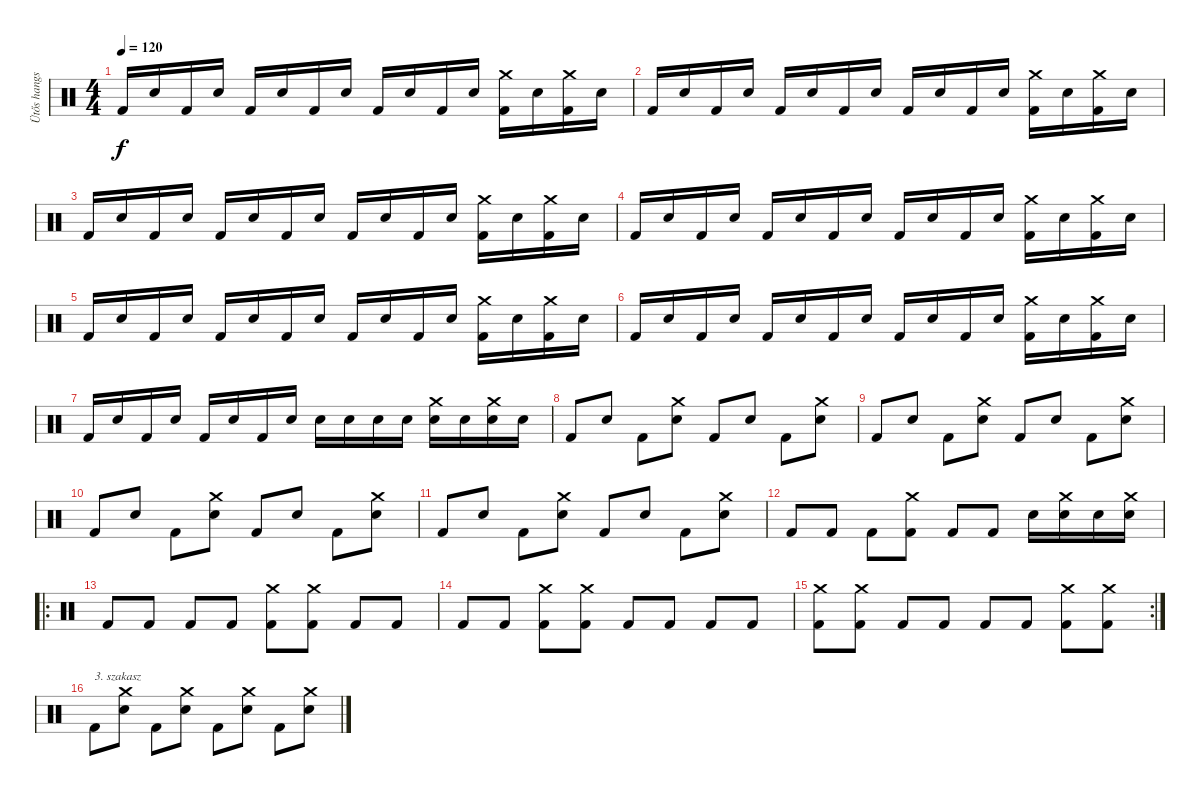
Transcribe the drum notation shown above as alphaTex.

\track ("Ütős hangszer" "Ütős hangs") {instrument percussion}
\staff {score}
\articulation defaults
\ts (4 4)
\tempo 120
\clef neutral
\ks c "Kick (hit) 2".16{dy f} "Snare (hit) 2".16 "Kick (hit) 2".16 "Snare (hit) 2".16 "Kick (hit) 2".16 "Snare (hit) 2".16 "Kick (hit) 2".16 "Snare (hit) 2".16 "Kick (hit) 2".16 "Snare (hit) 2".16 "Kick (hit) 2".16 "Snare (hit) 2".16
("Crash medium (hit)" "Kick (hit) 2").16 "Snare (hit) 2".16 ("Crash medium (hit)" "Kick (hit) 2").16 "Snare (hit) 2".16 |
"Kick (hit) 2".16 "Snare (hit) 2".16 "Kick (hit) 2".16 "Snare (hit) 2".16 "Kick (hit) 2".16 "Snare (hit) 2".16 "Kick (hit) 2".16 "Snare (hit) 2".16 "Kick (hit) 2".16 "Snare (hit) 2".16 "Kick (hit) 2".16 "Snare (hit) 2".16 ("Crash medium (hit)" "Kick (hit) 2").16 "Snare (hit) 2".16 ("Crash medium (hit)" "Kick (hit) 2").16 "Snare (hit) 2".16 |
"Kick (hit) 2".16 "Snare (hit) 2".16 "Kick (hit) 2".16 "Snare (hit) 2".16 "Kick (hit) 2".16 "Snare (hit) 2".16 "Kick (hit) 2".16 "Snare (hit) 2".16 "Kick (hit) 2".16 "Snare (hit) 2".16 "Kick (hit) 2".16 "Snare (hit) 2".16 ("Crash medium (hit)" "Kick (hit) 2").16 "Snare (hit) 2".16 ("Crash medium (hit)" "Kick (hit) 2").16 "Snare (hit) 2".16 |
"Kick (hit) 2".16 "Snare (hit) 2".16 "Kick (hit) 2".16 "Snare (hit) 2".16 "Kick (hit) 2".16 "Snare (hit) 2".16 "Kick (hit) 2".16 "Snare (hit) 2".16 "Kick (hit) 2".16 "Snare (hit) 2".16 "Kick (hit) 2".16 "Snare (hit) 2".16 ("Crash medium (hit)" "Kick (hit) 2").16 "Snare (hit) 2".16 ("Crash medium (hit)" "Kick (hit) 2").16 "Snare (hit) 2".16 |
"Kick (hit) 2".16 "Snare (hit) 2".16 "Kick (hit) 2".16 "Snare (hit) 2".16 "Kick (hit) 2".16 "Snare (hit) 2".16 "Kick (hit) 2".16 "Snare (hit) 2".16 "Kick (hit) 2".16 "Snare (hit) 2".16 "Kick (hit) 2".16 "Snare (hit) 2".16 ("Crash medium (hit)" "Kick (hit) 2").16 "Snare (hit) 2".16 ("Crash medium (hit)" "Kick (hit) 2").16 "Snare (hit) 2".16 |
"Kick (hit) 2".16 "Snare (hit) 2".16 "Kick (hit) 2".16 "Snare (hit) 2".16 "Kick (hit) 2".16 "Snare (hit) 2".16 "Kick (hit) 2".16 "Snare (hit) 2".16 "Kick (hit) 2".16 "Snare (hit) 2".16 "Kick (hit) 2".16 "Snare (hit) 2".16 ("Crash medium (hit)" "Kick (hit) 2").16 "Snare (hit) 2".16 ("Crash medium (hit)" "Kick (hit) 2").16 "Snare (hit) 2".16 |
"Kick (hit) 2".16 "Snare (hit) 2".16 "Kick (hit) 2".16 "Snare (hit) 2".16 "Kick (hit) 2".16 "Snare (hit) 2".16 "Kick (hit) 2".16 "Snare (hit) 2".16 "Snare (hit) 2".16 "Snare (hit) 2".16 "Snare (hit) 2".16 "Snare (hit) 2".16 ("Crash medium (hit)" "Snare (hit) 2").16 "Snare (hit) 2".16 ("Crash medium (hit)" "Snare (hit) 2").16 "Snare (hit) 2".16 |
"Kick (hit) 2".8 "Snare (hit) 2".8 "Kick (hit) 2".8 ("Crash medium (hit)" "Snare (hit) 2").8 "Kick (hit) 2".8 "Snare (hit) 2".8 "Kick (hit) 2".8 ("Crash medium (hit)" "Snare (hit) 2").8 |
"Kick (hit) 2".8 "Snare (hit) 2".8 "Kick (hit) 2".8 ("Crash medium (hit)" "Snare (hit) 2").8 "Kick (hit) 2".8 "Snare (hit) 2".8 "Kick (hit) 2".8 ("Crash medium (hit)" "Snare (hit) 2").8 |
"Kick (hit) 2".8 "Snare (hit) 2".8 "Kick (hit) 2".8 ("Crash medium (hit)" "Snare (hit) 2").8 "Kick (hit) 2".8 "Snare (hit) 2".8 "Kick (hit) 2".8 ("Crash medium (hit)" "Snare (hit) 2").8 |
"Kick (hit) 2".8 "Snare (hit) 2".8 "Kick (hit) 2".8 ("Crash medium (hit)" "Snare (hit) 2").8 "Kick (hit) 2".8 "Snare (hit) 2".8 "Kick (hit) 2".8 ("Crash medium (hit)" "Snare (hit) 2").8 |
"Kick (hit) 2".8 "Kick (hit) 2".8 "Kick (hit) 2".8 ("Crash medium (hit)" "Kick (hit) 2").8 "Kick (hit) 2".8 "Kick (hit) 2".8 "Snare (hit) 2".16 ("Crash medium (hit)" "Snare (hit) 2").16 "Snare (hit) 2".16 ("Crash medium (hit)" "Snare (hit) 2").16 |
\ro "Kick (hit) 2".8 "Kick (hit) 2".8 "Kick (hit) 2".8 "Kick (hit) 2".8
("Kick (hit) 2" "Crash medium (hit)").8 ("Kick (hit) 2" "Crash medium (hit)").8 "Kick (hit) 2".8 "Kick (hit) 2".8 |
"Kick (hit) 2".8 "Kick (hit) 2".8 ("Crash medium (hit)" "Kick (hit) 2").8 ("Crash medium (hit)" "Kick (hit) 2").8 "Kick (hit) 2".8 "Kick (hit) 2".8 "Kick (hit) 2".8 "Kick (hit) 2".8 |
\rc 2
("Crash medium (hit)" "Kick (hit) 2").8 ("Crash medium (hit)" "Kick (hit) 2").8 "Kick (hit) 2".8 "Kick (hit) 2".8 "Kick (hit) 2".8 "Kick (hit) 2".8 ("Crash medium (hit)" "Kick (hit) 2").8 ("Crash medium (hit)" "Kick (hit) 2").8 |
"Kick (hit) 2".8{txt "3. szakasz"} ("Crash medium (hit)" "Snare (hit) 2").8 "Kick (hit) 2".8 ("Crash medium (hit)" "Snare (hit) 2").8 "Kick (hit) 2".8 ("Crash medium (hit)" "Snare (hit) 2").8 "Kick (hit) 2".8 ("Crash medium (hit)" "Snare (hit) 2").8
